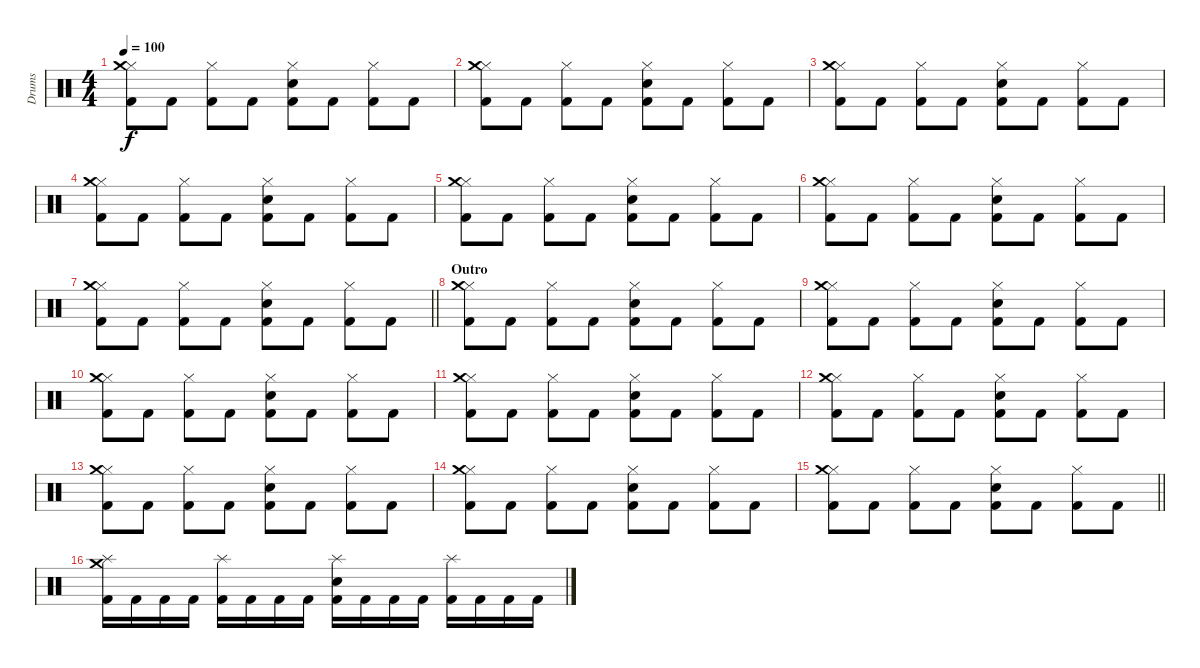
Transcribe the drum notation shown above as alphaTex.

\track ("Drums" "Drums") {instrument percussion}
\staff {score}
\articulation defaults
\ts (4 4)
\tempo 100
\clef neutral
\ks c
("Hi-Hat (closed)" "Crash medium (hit)" "Kick (hit) 2").8{dy f} "Kick (hit) 2".8 ("Hi-Hat (closed)" "Kick (hit) 2").8 "Kick (hit) 2".8 ("Hi-Hat (closed)" "Snare (hit) 2" "Kick (hit) 2").8 "Kick (hit) 2".8 ("Hi-Hat (closed)" "Kick (hit) 2").8 "Kick (hit) 2".8 |
("Hi-Hat (closed)" "Crash medium (hit)" "Kick (hit) 2").8 "Kick (hit) 2".8 ("Hi-Hat (closed)" "Kick (hit) 2").8 "Kick (hit) 2".8 ("Hi-Hat (closed)" "Snare (hit) 2" "Kick (hit) 2").8 "Kick (hit) 2".8 ("Hi-Hat (closed)" "Kick (hit) 2").8 "Kick (hit) 2".8 |
("Hi-Hat (closed)" "Crash medium (hit)" "Kick (hit) 2").8 "Kick (hit) 2".8 ("Hi-Hat (closed)" "Kick (hit) 2").8 "Kick (hit) 2".8 ("Hi-Hat (closed)" "Snare (hit) 2" "Kick (hit) 2").8 "Kick (hit) 2".8 ("Hi-Hat (closed)" "Kick (hit) 2").8 "Kick (hit) 2".8 |
("Hi-Hat (closed)" "Crash medium (hit)" "Kick (hit) 2").8 "Kick (hit) 2".8 ("Hi-Hat (closed)" "Kick (hit) 2").8 "Kick (hit) 2".8 ("Hi-Hat (closed)" "Snare (hit) 2" "Kick (hit) 2").8 "Kick (hit) 2".8 ("Hi-Hat (closed)" "Kick (hit) 2").8 "Kick (hit) 2".8 |
("Hi-Hat (closed)" "Crash medium (hit)" "Kick (hit) 2").8 "Kick (hit) 2".8 ("Hi-Hat (closed)" "Kick (hit) 2").8 "Kick (hit) 2".8 ("Hi-Hat (closed)" "Snare (hit) 2" "Kick (hit) 2").8 "Kick (hit) 2".8 ("Hi-Hat (closed)" "Kick (hit) 2").8 "Kick (hit) 2".8 |
("Hi-Hat (closed)" "Crash medium (hit)" "Kick (hit) 2").8 "Kick (hit) 2".8 ("Hi-Hat (closed)" "Kick (hit) 2").8 "Kick (hit) 2".8 ("Hi-Hat (closed)" "Snare (hit) 2" "Kick (hit) 2").8 "Kick (hit) 2".8 ("Hi-Hat (closed)" "Kick (hit) 2").8 "Kick (hit) 2".8 |
\barLineRight lightlight
("Hi-Hat (closed)" "Crash medium (hit)" "Kick (hit) 2").8 "Kick (hit) 2".8 ("Hi-Hat (closed)" "Kick (hit) 2").8 "Kick (hit) 2".8 ("Hi-Hat (closed)" "Snare (hit) 2" "Kick (hit) 2").8 "Kick (hit) 2".8 ("Hi-Hat (closed)" "Kick (hit) 2").8 "Kick (hit) 2".8 |
\section ("" "Outro")
("Hi-Hat (closed)" "Crash medium (hit)" "Kick (hit) 2").8 "Kick (hit) 2".8 ("Hi-Hat (closed)" "Kick (hit) 2").8 "Kick (hit) 2".8 ("Hi-Hat (closed)" "Snare (hit) 2" "Kick (hit) 2").8 "Kick (hit) 2".8 ("Hi-Hat (closed)" "Kick (hit) 2").8 "Kick (hit) 2".8 |
("Hi-Hat (closed)" "Crash medium (hit)" "Kick (hit) 2").8 "Kick (hit) 2".8 ("Hi-Hat (closed)" "Kick (hit) 2").8 "Kick (hit) 2".8 ("Hi-Hat (closed)" "Snare (hit) 2" "Kick (hit) 2").8 "Kick (hit) 2".8 ("Hi-Hat (closed)" "Kick (hit) 2").8 "Kick (hit) 2".8 |
("Hi-Hat (closed)" "Crash medium (hit)" "Kick (hit) 2").8 "Kick (hit) 2".8 ("Hi-Hat (closed)" "Kick (hit) 2").8 "Kick (hit) 2".8 ("Hi-Hat (closed)" "Snare (hit) 2" "Kick (hit) 2").8 "Kick (hit) 2".8 ("Hi-Hat (closed)" "Kick (hit) 2").8 "Kick (hit) 2".8 |
("Hi-Hat (closed)" "Crash medium (hit)" "Kick (hit) 2").8 "Kick (hit) 2".8 ("Hi-Hat (closed)" "Kick (hit) 2").8 "Kick (hit) 2".8 ("Hi-Hat (closed)" "Snare (hit) 2" "Kick (hit) 2").8 "Kick (hit) 2".8 ("Hi-Hat (closed)" "Kick (hit) 2").8 "Kick (hit) 2".8 |
("Hi-Hat (closed)" "Crash medium (hit)" "Kick (hit) 2").8 "Kick (hit) 2".8 ("Hi-Hat (closed)" "Kick (hit) 2").8 "Kick (hit) 2".8 ("Hi-Hat (closed)" "Snare (hit) 2" "Kick (hit) 2").8 "Kick (hit) 2".8 ("Hi-Hat (closed)" "Kick (hit) 2").8 "Kick (hit) 2".8 |
("Hi-Hat (closed)" "Crash medium (hit)" "Kick (hit) 2").8 "Kick (hit) 2".8 ("Hi-Hat (closed)" "Kick (hit) 2").8 "Kick (hit) 2".8 ("Hi-Hat (closed)" "Snare (hit) 2" "Kick (hit) 2").8 "Kick (hit) 2".8 ("Hi-Hat (closed)" "Kick (hit) 2").8 "Kick (hit) 2".8 |
("Hi-Hat (closed)" "Crash medium (hit)" "Kick (hit) 2").8 "Kick (hit) 2".8 ("Hi-Hat (closed)" "Kick (hit) 2").8 "Kick (hit) 2".8 ("Hi-Hat (closed)" "Snare (hit) 2" "Kick (hit) 2").8 "Kick (hit) 2".8 ("Hi-Hat (closed)" "Kick (hit) 2").8 "Kick (hit) 2".8 |
\barLineRight lightlight
("Hi-Hat (closed)" "Crash medium (hit)" "Kick (hit) 2").8 "Kick (hit) 2".8 ("Hi-Hat (closed)" "Kick (hit) 2").8 "Kick (hit) 2".8 ("Hi-Hat (closed)" "Snare (hit) 2" "Kick (hit) 2").8 "Kick (hit) 2".8 ("Hi-Hat (closed)" "Kick (hit) 2").8 "Kick (hit) 2".8 |
("Splash (hit)" "Crash medium (hit)" "Kick (hit) 2").16 "Kick (hit) 2".16 "Kick (hit) 2".16 "Kick (hit) 2".16 ("Splash (hit)" "Kick (hit) 2").16 "Kick (hit) 2".16 "Kick (hit) 2".16 "Kick (hit) 2".16 ("Splash (hit)" "Snare (hit) 2" "Kick (hit) 2").16 "Kick (hit) 2".16 "Kick (hit) 2".16 "Kick (hit) 2".16 ("Splash (hit)" "Kick (hit) 2").16 "Kick (hit) 2".16 "Kick (hit) 2".16 "Kick (hit) 2".16
